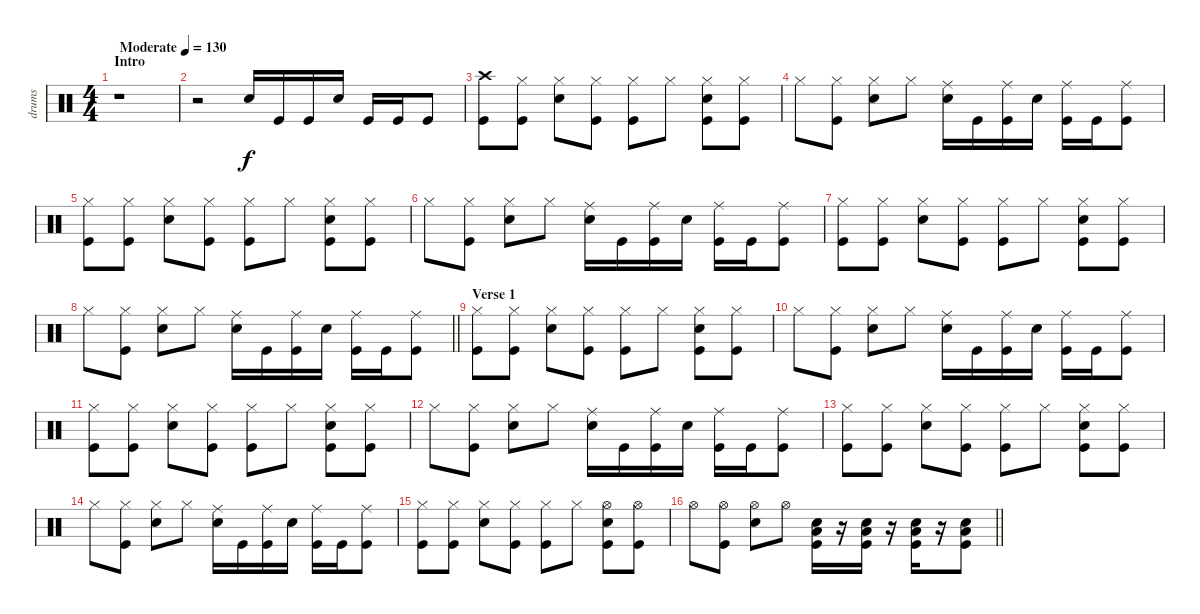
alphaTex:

\track ("drums" "drums") {instrument percussion}
\staff {score}
\articulation defaults
\ts (4 4)
\section ("" "Intro")
\tempo (130 "Moderate")
\clef neutral
\ks c
r.1{dy f} |
r.2 "Snare (hit) 2".16 "Kick (hit)".16 "Kick (hit)".16 "Snare (hit) 2".16 "Kick (hit)".16 "Kick (hit)".16 "Kick (hit)".8 |
("Crash high (hit)" "Kick (hit)").8 ("Hi-Hat (closed)" "Kick (hit)").8 ("Hi-Hat (closed)" "Snare (hit) 2").8 ("Hi-Hat (closed)" "Kick (hit)").8 ("Hi-Hat (closed)" "Kick (hit)").8 "Hi-Hat (closed)".8 ("Hi-Hat (closed)" "Snare (hit) 2" "Kick (hit)").8 ("Hi-Hat (closed)" "Kick (hit)").8 |
"Hi-Hat (closed)".8 ("Hi-Hat (closed)" "Kick (hit)").8 ("Hi-Hat (closed)" "Snare (hit) 2").8 "Hi-Hat (closed)".8 ("Snare (hit) 2" "Ride (middle)").16 "Kick (hit)".16 ("Kick (hit)" "Ride (middle)").16 "Snare (hit) 2".16 ("Kick (hit)" "Ride (middle)").16 "Kick (hit)".16 ("Kick (hit)" "Ride (middle)").8 |
("Hi-Hat (closed)" "Kick (hit)").8 ("Hi-Hat (closed)" "Kick (hit)").8 ("Hi-Hat (closed)" "Snare (hit) 2").8 ("Hi-Hat (closed)" "Kick (hit)").8 ("Hi-Hat (closed)" "Kick (hit)").8 "Hi-Hat (closed)".8 ("Hi-Hat (closed)" "Snare (hit) 2" "Kick (hit)").8 ("Hi-Hat (closed)" "Kick (hit)").8 |
"Hi-Hat (closed)".8 ("Hi-Hat (closed)" "Kick (hit)").8 ("Hi-Hat (closed)" "Snare (hit) 2").8 "Hi-Hat (closed)".8 ("Snare (hit) 2" "Ride (middle)").16 "Kick (hit)".16 ("Kick (hit)" "Ride (middle)").16 "Snare (hit) 2".16 ("Kick (hit)" "Ride (middle)").16 "Kick (hit)".16 ("Kick (hit)" "Ride (middle)").8 |
("Hi-Hat (closed)" "Kick (hit)").8 ("Hi-Hat (closed)" "Kick (hit)").8 ("Hi-Hat (closed)" "Snare (hit) 2").8 ("Hi-Hat (closed)" "Kick (hit)").8 ("Hi-Hat (closed)" "Kick (hit)").8 "Hi-Hat (closed)".8 ("Hi-Hat (closed)" "Snare (hit) 2" "Kick (hit)").8 ("Hi-Hat (closed)" "Kick (hit)").8 |
\barLineRight lightlight "Hi-Hat (closed)".8
("Hi-Hat (closed)" "Kick (hit)").8 ("Hi-Hat (closed)" "Snare (hit) 2").8 "Hi-Hat (closed)".8 ("Snare (hit) 2" "Ride (middle)").16 "Kick (hit)".16 ("Kick (hit)" "Ride (middle)").16 "Snare (hit) 2".16 ("Kick (hit)" "Ride (middle)").16 "Kick (hit)".16 ("Kick (hit)" "Ride (middle)").8 |
\section ("" "Verse 1")
("Hi-Hat (closed)" "Kick (hit)").8 ("Hi-Hat (closed)" "Kick (hit)").8 ("Hi-Hat (closed)" "Snare (hit) 2").8 ("Hi-Hat (closed)" "Kick (hit)").8 ("Hi-Hat (closed)" "Kick (hit)").8 "Hi-Hat (closed)".8 ("Hi-Hat (closed)" "Snare (hit) 2" "Kick (hit)").8 ("Hi-Hat (closed)" "Kick (hit)").8 |
"Hi-Hat (closed)".8 ("Hi-Hat (closed)" "Kick (hit)").8 ("Hi-Hat (closed)" "Snare (hit) 2").8 "Hi-Hat (closed)".8 ("Snare (hit) 2" "Ride (middle)").16 "Kick (hit)".16 ("Kick (hit)" "Ride (middle)").16 "Snare (hit) 2".16 ("Kick (hit)" "Ride (middle)").16 "Kick (hit)".16 ("Kick (hit)" "Ride (middle)").8 |
("Hi-Hat (closed)" "Kick (hit)").8 ("Hi-Hat (closed)" "Kick (hit)").8 ("Hi-Hat (closed)" "Snare (hit) 2").8 ("Hi-Hat (closed)" "Kick (hit)").8 ("Hi-Hat (closed)" "Kick (hit)").8 "Hi-Hat (closed)".8 ("Hi-Hat (closed)" "Snare (hit) 2" "Kick (hit)").8 ("Hi-Hat (closed)" "Kick (hit)").8 |
"Hi-Hat (closed)".8 ("Hi-Hat (closed)" "Kick (hit)").8 ("Hi-Hat (closed)" "Snare (hit) 2").8 "Hi-Hat (closed)".8 ("Snare (hit) 2" "Ride (middle)").16 "Kick (hit)".16 ("Kick (hit)" "Ride (middle)").16 "Snare (hit) 2".16 ("Kick (hit)" "Ride (middle)").16 "Kick (hit)".16 ("Kick (hit)" "Ride (middle)").8 |
("Hi-Hat (closed)" "Kick (hit)").8 ("Hi-Hat (closed)" "Kick (hit)").8 ("Hi-Hat (closed)" "Snare (hit) 2").8 ("Hi-Hat (closed)" "Kick (hit)").8 ("Hi-Hat (closed)" "Kick (hit)").8 "Hi-Hat (closed)".8 ("Hi-Hat (closed)" "Snare (hit) 2" "Kick (hit)").8 ("Hi-Hat (closed)" "Kick (hit)").8 |
"Hi-Hat (closed)".8 ("Hi-Hat (closed)" "Kick (hit)").8 ("Hi-Hat (closed)" "Snare (hit) 2").8 "Hi-Hat (closed)".8 ("Snare (hit) 2" "Ride (middle)").16 "Kick (hit)".16 ("Kick (hit)" "Ride (middle)").16 "Snare (hit) 2".16 ("Kick (hit)" "Ride (middle)").16 "Kick (hit)".16 ("Kick (hit)" "Ride (middle)").8 |
("Hi-Hat (closed)" "Kick (hit)").8 ("Hi-Hat (closed)" "Kick (hit)").8 ("Hi-Hat (closed)" "Snare (hit) 2").8 ("Hi-Hat (closed)" "Kick (hit)").8 ("Hi-Hat (closed)" "Kick (hit)").8 "Hi-Hat (closed)".8 ("Hi-Hat (open)" "Snare (hit) 2" "Kick (hit)").8 ("Hi-Hat (open)" "Kick (hit)").8 |
\barLineRight lightlight "Hi-Hat (open)".8
("Hi-Hat (open)" "Kick (hit)").8 ("Hi-Hat (open)" "Snare (hit) 2").8 "Hi-Hat (open)".8 ("Snare (hit) 2" "Low Tom (hit)" "Kick (hit)").16 r.16 ("Snare (hit) 2" "Low Tom (hit)" "Kick (hit)").16 r.16 ("Snare (hit) 2" "Low Tom (hit)" "Kick (hit)").16 r.16 ("Snare (hit) 2" "Low Tom (hit)" "Kick (hit)").8
